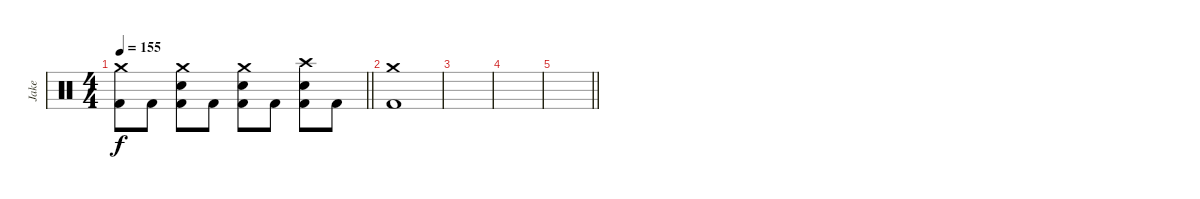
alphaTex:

\track ("Jake" "Jake") {instrument percussion}
\staff {score}
\articulation defaults
\ts (4 4)
\tempo 155
\clef neutral
\barLineRight lightlight
\ks c
("Crash medium (hit)" "Kick (hit) 2").8{dy f} "Kick (hit) 2".8 ("Crash medium (hit)" "Electric Snare (hit)" "Kick (hit) 2").8 "Kick (hit) 2".8 ("Crash medium (hit)" "Electric Snare (hit)" "Kick (hit) 2").8 "Kick (hit) 2".8 ("Crash high (hit)" "Electric Snare (hit)" "Kick (hit) 2").8 "Kick (hit) 2".8 |
("Crash medium (hit)" "Kick (hit) 2").1 |
|
|
\barLineRight lightlight
